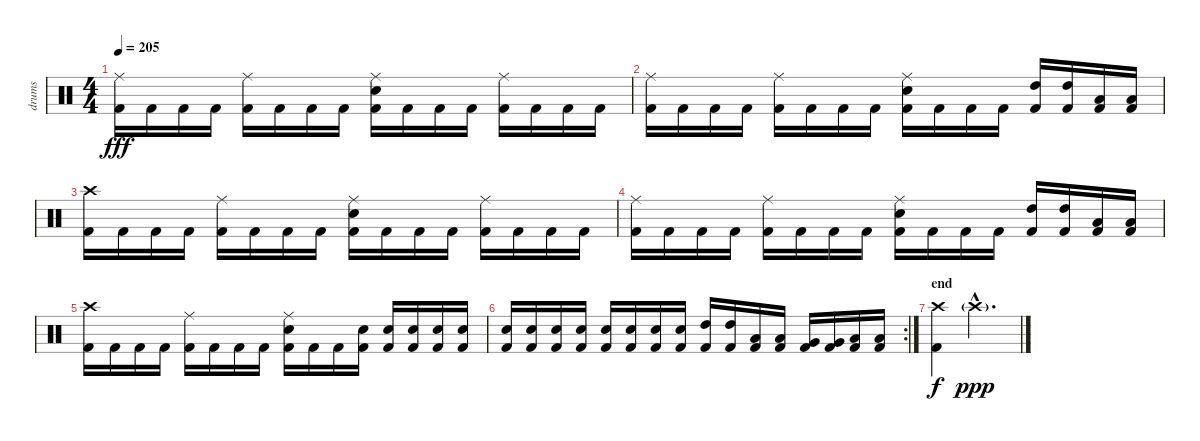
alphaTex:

\track ("drums" "drums") {instrument percussion}
\staff {score}
\articulation defaults
\ts (4 4)
\tempo 205
\clef neutral
\ks c
("Ride (middle)" "Kick (hit) 2").16{dy fff} "Kick (hit) 2".16 "Kick (hit) 2".16 "Kick (hit) 2".16 ("Ride (middle)" "Kick (hit) 2").16 "Kick (hit) 2".16 "Kick (hit) 2".16 "Kick (hit) 2".16 ("Ride (middle)" "Electric Snare (hit)" "Kick (hit) 2").16 "Kick (hit) 2".16 "Kick (hit) 2".16 "Kick (hit) 2".16 ("Ride (middle)" "Kick (hit) 2").16 "Kick (hit) 2".16 "Kick (hit) 2".16 "Kick (hit) 2".16 |
("Ride (middle)" "Kick (hit) 2").16 "Kick (hit) 2".16 "Kick (hit) 2".16 "Kick (hit) 2".16 ("Ride (middle)" "Kick (hit) 2").16 "Kick (hit) 2".16 "Kick (hit) 2".16 "Kick (hit) 2".16 ("Ride (middle)" "Electric Snare (hit)" "Kick (hit) 2").16 "Kick (hit) 2".16 "Kick (hit) 2".16 "Kick (hit) 2".16 ("High Tom (hit)" "Kick (hit) 2").16 ("High Tom (hit)" "Kick (hit) 2").16 ("Low Tom (hit)" "Kick (hit) 2").16 ("Low Tom (hit)" "Kick (hit) 2").16 |
("Crash high (hit)" "Kick (hit) 2").16 "Kick (hit) 2".16 "Kick (hit) 2".16 "Kick (hit) 2".16 ("Ride (middle)" "Kick (hit) 2").16 "Kick (hit) 2".16 "Kick (hit) 2".16 "Kick (hit) 2".16 ("Ride (middle)" "Electric Snare (hit)" "Kick (hit) 2").16 "Kick (hit) 2".16 "Kick (hit) 2".16 "Kick (hit) 2".16 ("Ride (middle)" "Kick (hit) 2").16 "Kick (hit) 2".16 "Kick (hit) 2".16 "Kick (hit) 2".16 |
("Ride (middle)" "Kick (hit) 2").16 "Kick (hit) 2".16 "Kick (hit) 2".16 "Kick (hit) 2".16 ("Ride (middle)" "Kick (hit) 2").16 "Kick (hit) 2".16 "Kick (hit) 2".16 "Kick (hit) 2".16 ("Ride (middle)" "Electric Snare (hit)" "Kick (hit) 2").16 "Kick (hit) 2".16 "Kick (hit) 2".16 "Kick (hit) 2".16 ("High Tom (hit)" "Kick (hit) 2").16 ("High Tom (hit)" "Kick (hit) 2").16 ("Low Tom (hit)" "Kick (hit) 2").16 ("Low Tom (hit)" "Kick (hit) 2").16 |
("Crash high (hit)" "Kick (hit) 2").16 "Kick (hit) 2".16 "Kick (hit) 2".16 "Kick (hit) 2".16 ("Ride (middle)" "Kick (hit) 2").16 "Kick (hit) 2".16 "Kick (hit) 2".16 "Kick (hit) 2".16 ("Ride (middle)" "Electric Snare (hit)" "Kick (hit) 2").16 "Kick (hit) 2".16 "Kick (hit) 2".16 ("Electric Snare (hit)" "Kick (hit) 2").16 ("Electric Snare (hit)" "Kick (hit) 2").16 ("Electric Snare (hit)" "Kick (hit) 2").16 ("Electric Snare (hit)" "Kick (hit) 2").16 ("Electric Snare (hit)" "Kick (hit) 2").16 |
\rc 2
("Electric Snare (hit)" "Kick (hit) 2").16 ("Electric Snare (hit)" "Kick (hit) 2").16 ("Electric Snare (hit)" "Kick (hit) 2").16 ("Electric Snare (hit)" "Kick (hit) 2").16 ("Electric Snare (hit)" "Kick (hit) 2").16 ("Electric Snare (hit)" "Kick (hit) 2").16 ("Electric Snare (hit)" "Kick (hit) 2").16 ("Electric Snare (hit)" "Kick (hit) 2").16 ("High Tom (hit)" "Kick (hit) 2").16 ("High Tom (hit)" "Kick (hit) 2").16 ("Low Tom (hit)" "Kick (hit) 2").16 ("Low Tom (hit)" "Kick (hit) 2").16 ("Very Low Tom (hit)" "Kick (hit) 2").16 ("Very Low Tom (hit)" "Kick (hit) 2").16 ("Low Floor Tom (hit)" "Kick (hit) 2").16 ("Low Floor Tom (hit)" "Kick (hit) 2").16 |
\section ("" "end")
("Crash high (hit)" "Kick (hit) 2").4{dy f} "Crash high (hit)"{g hac}.2{d dy ppp}
